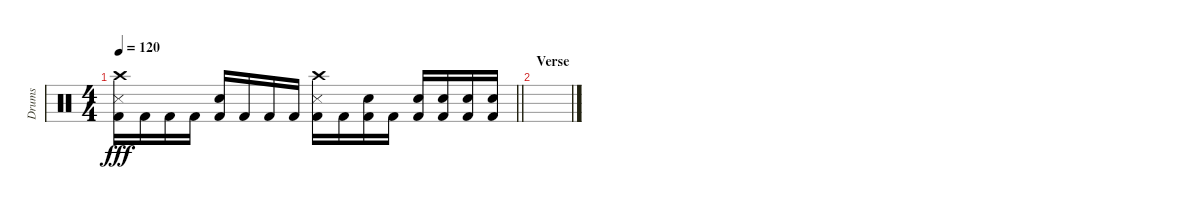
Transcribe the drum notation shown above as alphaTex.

\track ("Drums" "Drums") {instrument percussion}
\staff {score}
\articulation defaults
\ts (4 4)
\tempo 120
\clef neutral
\barLineRight lightlight
\ks c
("Crash high (hit)" "Snare (side stick) 3" "Kick (hit) 2").16{dy fff} "Kick (hit) 2".16 "Kick (hit) 2".16 "Kick (hit) 2".16 ("Electric Snare (hit)" "Kick (hit) 2").16 "Kick (hit) 2".16 "Kick (hit) 2".16 "Kick (hit) 2".16 ("Crash high (hit)" "Snare (side stick) 3" "Kick (hit) 2").16 "Kick (hit) 2".16 ("Electric Snare (hit)" "Kick (hit) 2").16 "Kick (hit) 2".16 ("Electric Snare (hit)" "Kick (hit) 2").16 ("Electric Snare (hit)" "Kick (hit) 2").16 ("Electric Snare (hit)" "Kick (hit) 2").16 ("Electric Snare (hit)" "Kick (hit) 2").16 |
\section ("" "Verse")
